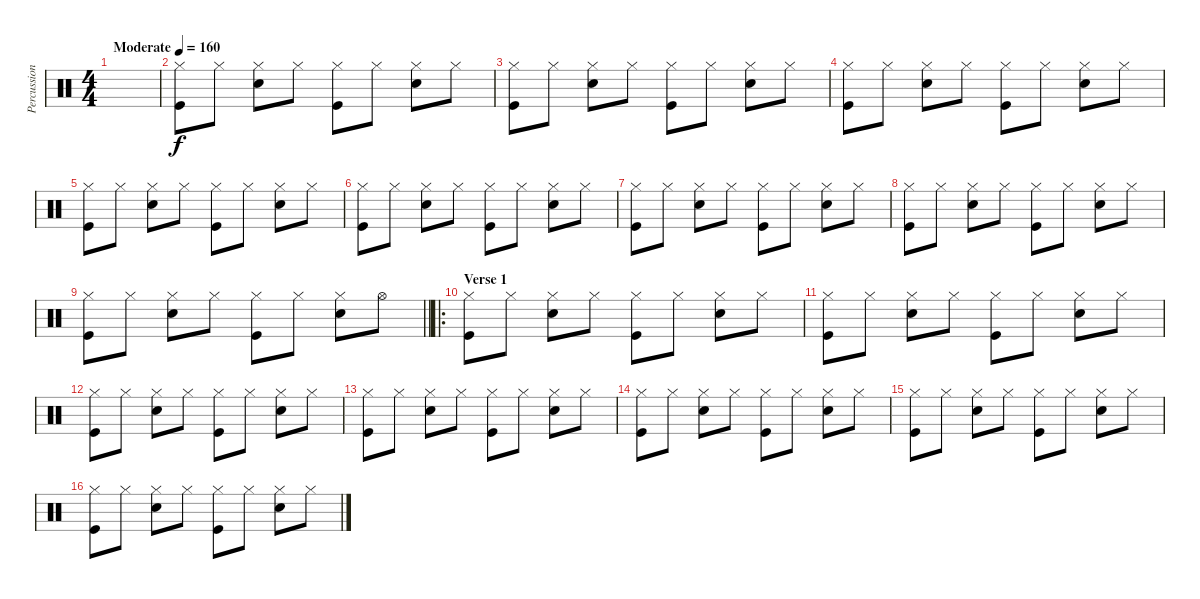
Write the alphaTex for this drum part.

\track ("Percussion" "Percussion") {instrument percussion}
\staff {score}
\articulation defaults
\ts (4 4)
\tempo (160 "Moderate")
\clef neutral
\ks c
|
("Kick (hit)" "Hi-Hat (closed)").8 "Hi-Hat (closed)".8 ("Hi-Hat (closed)" "Snare (hit) 2").8 "Hi-Hat (closed)".8 ("Kick (hit)" "Hi-Hat (closed)").8 "Hi-Hat (closed)".8 ("Hi-Hat (closed)" "Snare (hit) 2").8 "Hi-Hat (closed)".8 |
("Kick (hit)" "Hi-Hat (closed)").8 "Hi-Hat (closed)".8 ("Hi-Hat (closed)" "Snare (hit) 2").8 "Hi-Hat (closed)".8 ("Kick (hit)" "Hi-Hat (closed)").8 "Hi-Hat (closed)".8 ("Hi-Hat (closed)" "Snare (hit) 2").8 "Hi-Hat (closed)".8 |
("Kick (hit)" "Hi-Hat (closed)").8 "Hi-Hat (closed)".8 ("Hi-Hat (closed)" "Snare (hit) 2").8 "Hi-Hat (closed)".8 ("Kick (hit)" "Hi-Hat (closed)").8 "Hi-Hat (closed)".8 ("Hi-Hat (closed)" "Snare (hit) 2").8 "Hi-Hat (closed)".8 |
("Kick (hit)" "Hi-Hat (closed)").8 "Hi-Hat (closed)".8 ("Hi-Hat (closed)" "Snare (hit) 2").8 "Hi-Hat (closed)".8 ("Kick (hit)" "Hi-Hat (closed)").8 "Hi-Hat (closed)".8 ("Hi-Hat (closed)" "Snare (hit) 2").8 "Hi-Hat (closed)".8 |
("Kick (hit)" "Hi-Hat (closed)").8 "Hi-Hat (closed)".8 ("Hi-Hat (closed)" "Snare (hit) 2").8 "Hi-Hat (closed)".8 ("Kick (hit)" "Hi-Hat (closed)").8 "Hi-Hat (closed)".8 ("Hi-Hat (closed)" "Snare (hit) 2").8 "Hi-Hat (closed)".8 |
("Kick (hit)" "Hi-Hat (closed)").8 "Hi-Hat (closed)".8 ("Hi-Hat (closed)" "Snare (hit) 2").8 "Hi-Hat (closed)".8 ("Kick (hit)" "Hi-Hat (closed)").8 "Hi-Hat (closed)".8 ("Hi-Hat (closed)" "Snare (hit) 2").8 "Hi-Hat (closed)".8 |
("Kick (hit)" "Hi-Hat (closed)").8 "Hi-Hat (closed)".8 ("Hi-Hat (closed)" "Snare (hit) 2").8 "Hi-Hat (closed)".8 ("Kick (hit)" "Hi-Hat (closed)").8 "Hi-Hat (closed)".8 ("Hi-Hat (closed)" "Snare (hit) 2").8 "Hi-Hat (closed)".8 |
\barLineRight lightlight
("Kick (hit)" "Hi-Hat (closed)").8 "Hi-Hat (closed)".8 ("Hi-Hat (closed)" "Snare (hit) 2").8 "Hi-Hat (closed)".8 ("Kick (hit)" "Hi-Hat (closed)").8 "Hi-Hat (closed)".8 ("Hi-Hat (closed)" "Snare (hit) 2").8 "Hi-Hat (open)".8 |
\ro
\section ("" "Verse 1")
("Kick (hit)" "Hi-Hat (closed)").8 "Hi-Hat (closed)".8 ("Hi-Hat (closed)" "Snare (hit) 2").8 "Hi-Hat (closed)".8 ("Kick (hit)" "Hi-Hat (closed)").8 "Hi-Hat (closed)".8 ("Hi-Hat (closed)" "Snare (hit) 2").8 "Hi-Hat (closed)".8 |
("Kick (hit)" "Hi-Hat (closed)").8 "Hi-Hat (closed)".8 ("Hi-Hat (closed)" "Snare (hit) 2").8 "Hi-Hat (closed)".8 ("Kick (hit)" "Hi-Hat (closed)").8 "Hi-Hat (closed)".8 ("Hi-Hat (closed)" "Snare (hit) 2").8 "Hi-Hat (closed)".8 |
("Kick (hit)" "Hi-Hat (closed)").8 "Hi-Hat (closed)".8 ("Hi-Hat (closed)" "Snare (hit) 2").8 "Hi-Hat (closed)".8 ("Kick (hit)" "Hi-Hat (closed)").8 "Hi-Hat (closed)".8 ("Hi-Hat (closed)" "Snare (hit) 2").8 "Hi-Hat (closed)".8 |
("Kick (hit)" "Hi-Hat (closed)").8 "Hi-Hat (closed)".8 ("Hi-Hat (closed)" "Snare (hit) 2").8 "Hi-Hat (closed)".8 ("Kick (hit)" "Hi-Hat (closed)").8 "Hi-Hat (closed)".8 ("Hi-Hat (closed)" "Snare (hit) 2").8 "Hi-Hat (closed)".8 |
("Kick (hit)" "Hi-Hat (closed)").8 "Hi-Hat (closed)".8 ("Hi-Hat (closed)" "Snare (hit) 2").8 "Hi-Hat (closed)".8 ("Kick (hit)" "Hi-Hat (closed)").8 "Hi-Hat (closed)".8 ("Hi-Hat (closed)" "Snare (hit) 2").8 "Hi-Hat (closed)".8 |
("Kick (hit)" "Hi-Hat (closed)").8 "Hi-Hat (closed)".8 ("Hi-Hat (closed)" "Snare (hit) 2").8 "Hi-Hat (closed)".8 ("Kick (hit)" "Hi-Hat (closed)").8 "Hi-Hat (closed)".8 ("Hi-Hat (closed)" "Snare (hit) 2").8 "Hi-Hat (closed)".8 |
("Kick (hit)" "Hi-Hat (closed)").8 "Hi-Hat (closed)".8 ("Hi-Hat (closed)" "Snare (hit) 2").8 "Hi-Hat (closed)".8 ("Kick (hit)" "Hi-Hat (closed)").8 "Hi-Hat (closed)".8 ("Hi-Hat (closed)" "Snare (hit) 2").8 "Hi-Hat (closed)".8
